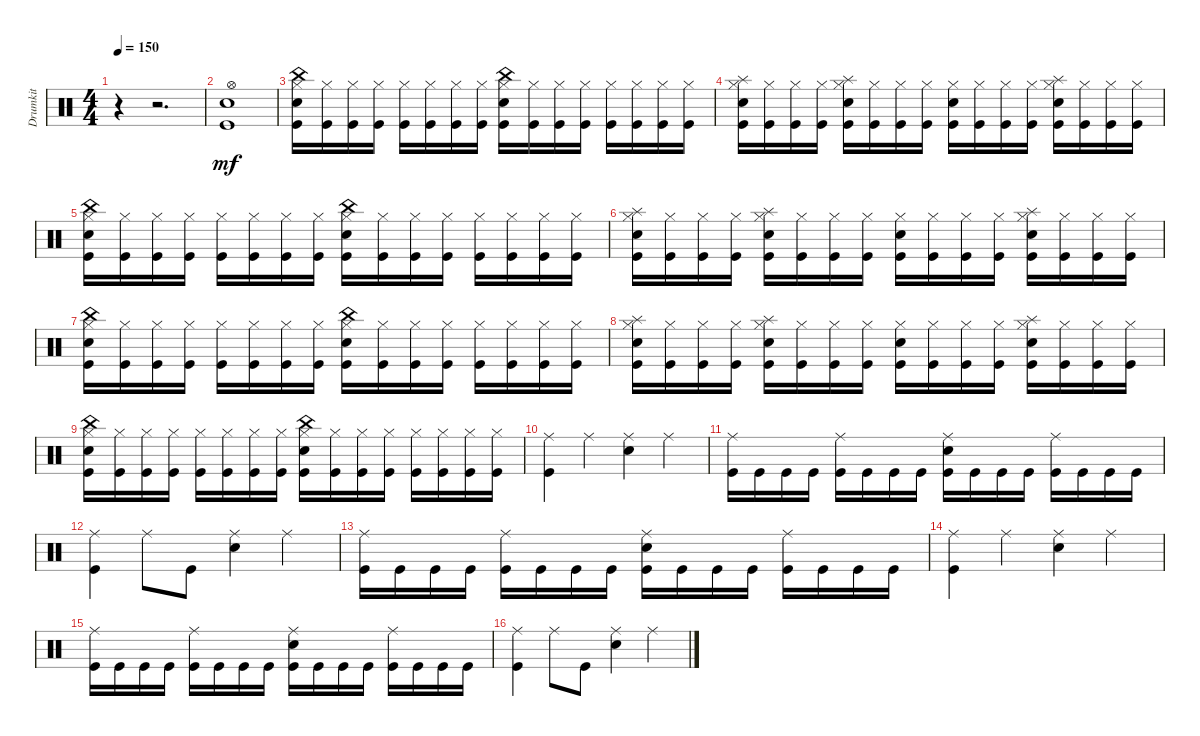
\track ("Drumkit" "Drumkit") {instrument percussion}
\staff {score}
\articulation defaults
\ts (4 4)
\tempo 150
\clef neutral
\ks c
r.4{dy mf} r.2{d} |
("Snare (hit) 2" "Hi-Hat (open)" "Kick (hit)").1 |
("Kick (hit)" "China (hit)" "Snare (hit) 2" "Hi-Hat (closed)").16 ("Kick (hit)" "Hi-Hat (closed)").16 ("Kick (hit)" "Hi-Hat (closed)").16 ("Kick (hit)" "Hi-Hat (closed)").16 ("Kick (hit)" "Hi-Hat (closed)").16 ("Kick (hit)" "Hi-Hat (closed)").16 ("Kick (hit)" "Hi-Hat (closed)").16 ("Kick (hit)" "Hi-Hat (closed)").16 ("Kick (hit)" "Snare (hit) 2" "China (hit)" "Hi-Hat (closed)").16 ("Kick (hit)" "Hi-Hat (closed)").16 ("Kick (hit)" "Hi-Hat (closed)").16 ("Kick (hit)" "Hi-Hat (closed)").16 ("Kick (hit)" "Hi-Hat (closed)").16 ("Kick (hit)" "Hi-Hat (closed)").16 ("Kick (hit)" "Hi-Hat (closed)").16 ("Kick (hit)" "Hi-Hat (closed)").16 |
("Kick (hit)" "Splash (hit)" "Snare (hit) 2" "Hi-Hat (closed)").16 ("Kick (hit)" "Hi-Hat (closed)").16 ("Kick (hit)" "Hi-Hat (closed)").16 ("Kick (hit)" "Hi-Hat (closed)").16 ("Kick (hit)" "Splash (hit)" "Snare (hit) 2" "Hi-Hat (closed)").16 ("Kick (hit)" "Hi-Hat (closed)").16 ("Kick (hit)" "Hi-Hat (closed)").16 ("Kick (hit)" "Hi-Hat (closed)").16 ("Kick (hit)" "Snare (hit) 2" "Hi-Hat (closed)").16 ("Kick (hit)" "Hi-Hat (closed)").16 ("Kick (hit)" "Hi-Hat (closed)").16 ("Kick (hit)" "Hi-Hat (closed)").16 ("Kick (hit)" "Snare (hit) 2" "Splash (hit)" "Hi-Hat (closed)").16 ("Kick (hit)" "Hi-Hat (closed)").16 ("Kick (hit)" "Hi-Hat (closed)").16 ("Kick (hit)" "Hi-Hat (closed)").16 |
("Kick (hit)" "China (hit)" "Snare (hit) 2" "Hi-Hat (closed)").16 ("Kick (hit)" "Hi-Hat (closed)").16 ("Kick (hit)" "Hi-Hat (closed)").16 ("Kick (hit)" "Hi-Hat (closed)").16 ("Kick (hit)" "Hi-Hat (closed)").16 ("Kick (hit)" "Hi-Hat (closed)").16 ("Kick (hit)" "Hi-Hat (closed)").16 ("Kick (hit)" "Hi-Hat (closed)").16 ("Kick (hit)" "Snare (hit) 2" "China (hit)" "Hi-Hat (closed)").16 ("Kick (hit)" "Hi-Hat (closed)").16 ("Kick (hit)" "Hi-Hat (closed)").16 ("Kick (hit)" "Hi-Hat (closed)").16 ("Kick (hit)" "Hi-Hat (closed)").16 ("Kick (hit)" "Hi-Hat (closed)").16 ("Kick (hit)" "Hi-Hat (closed)").16 ("Kick (hit)" "Hi-Hat (closed)").16 |
("Kick (hit)" "Splash (hit)" "Snare (hit) 2" "Hi-Hat (closed)").16 ("Kick (hit)" "Hi-Hat (closed)").16 ("Kick (hit)" "Hi-Hat (closed)").16 ("Kick (hit)" "Hi-Hat (closed)").16 ("Kick (hit)" "Splash (hit)" "Snare (hit) 2" "Hi-Hat (closed)").16 ("Kick (hit)" "Hi-Hat (closed)").16 ("Kick (hit)" "Hi-Hat (closed)").16 ("Kick (hit)" "Hi-Hat (closed)").16 ("Kick (hit)" "Snare (hit) 2" "Hi-Hat (closed)").16 ("Kick (hit)" "Hi-Hat (closed)").16 ("Kick (hit)" "Hi-Hat (closed)").16 ("Kick (hit)" "Hi-Hat (closed)").16 ("Kick (hit)" "Snare (hit) 2" "Splash (hit)" "Hi-Hat (closed)").16 ("Kick (hit)" "Hi-Hat (closed)").16 ("Kick (hit)" "Hi-Hat (closed)").16 ("Kick (hit)" "Hi-Hat (closed)").16 |
("Kick (hit)" "China (hit)" "Snare (hit) 2" "Hi-Hat (closed)").16 ("Kick (hit)" "Hi-Hat (closed)").16 ("Kick (hit)" "Hi-Hat (closed)").16 ("Kick (hit)" "Hi-Hat (closed)").16 ("Kick (hit)" "Hi-Hat (closed)").16 ("Kick (hit)" "Hi-Hat (closed)").16 ("Kick (hit)" "Hi-Hat (closed)").16 ("Kick (hit)" "Hi-Hat (closed)").16 ("Kick (hit)" "Snare (hit) 2" "China (hit)" "Hi-Hat (closed)").16 ("Kick (hit)" "Hi-Hat (closed)").16 ("Kick (hit)" "Hi-Hat (closed)").16 ("Kick (hit)" "Hi-Hat (closed)").16 ("Kick (hit)" "Hi-Hat (closed)").16 ("Kick (hit)" "Hi-Hat (closed)").16 ("Kick (hit)" "Hi-Hat (closed)").16 ("Kick (hit)" "Hi-Hat (closed)").16 |
("Kick (hit)" "Splash (hit)" "Snare (hit) 2" "Hi-Hat (closed)").16 ("Kick (hit)" "Hi-Hat (closed)").16 ("Kick (hit)" "Hi-Hat (closed)").16 ("Kick (hit)" "Hi-Hat (closed)").16 ("Kick (hit)" "Splash (hit)" "Snare (hit) 2" "Hi-Hat (closed)").16 ("Kick (hit)" "Hi-Hat (closed)").16 ("Kick (hit)" "Hi-Hat (closed)").16 ("Kick (hit)" "Hi-Hat (closed)").16 ("Kick (hit)" "Snare (hit) 2" "Hi-Hat (closed)").16 ("Kick (hit)" "Hi-Hat (closed)").16 ("Kick (hit)" "Hi-Hat (closed)").16 ("Kick (hit)" "Hi-Hat (closed)").16 ("Kick (hit)" "Snare (hit) 2" "Splash (hit)" "Hi-Hat (closed)").16 ("Kick (hit)" "Hi-Hat (closed)").16 ("Kick (hit)" "Hi-Hat (closed)").16 ("Kick (hit)" "Hi-Hat (closed)").16 |
("Kick (hit)" "China (hit)" "Snare (hit) 2" "Hi-Hat (closed)").16 ("Kick (hit)" "Hi-Hat (closed)").16 ("Kick (hit)" "Hi-Hat (closed)").16 ("Kick (hit)" "Hi-Hat (closed)").16 ("Kick (hit)" "Hi-Hat (closed)").16 ("Kick (hit)" "Hi-Hat (closed)").16 ("Kick (hit)" "Hi-Hat (closed)").16 ("Kick (hit)" "Hi-Hat (closed)").16 ("Kick (hit)" "Snare (hit) 2" "China (hit)" "Hi-Hat (closed)").16 ("Kick (hit)" "Hi-Hat (closed)").16 ("Kick (hit)" "Hi-Hat (closed)").16 ("Kick (hit)" "Hi-Hat (closed)").16 ("Kick (hit)" "Hi-Hat (closed)").16 ("Kick (hit)" "Hi-Hat (closed)").16 ("Kick (hit)" "Hi-Hat (closed)").16 ("Kick (hit)" "Hi-Hat (closed)").16 |
("Ride (middle)" "Kick (hit)").4 "Ride (middle)".4 ("Ride (middle)" "Snare (hit) 2").4 "Ride (middle)".4 |
("Kick (hit)" "Ride (middle)").16 "Kick (hit)".16 "Kick (hit)".16 "Kick (hit)".16 ("Kick (hit)" "Ride (middle)").16 "Kick (hit)".16 "Kick (hit)".16 "Kick (hit)".16 ("Kick (hit)" "Ride (middle)" "Snare (hit) 2").16 "Kick (hit)".16 "Kick (hit)".16 "Kick (hit)".16 ("Kick (hit)" "Ride (middle)").16 "Kick (hit)".16 "Kick (hit)".16 "Kick (hit)".16 |
("Ride (middle)" "Kick (hit)").4 "Ride (middle)".8 "Kick (hit)".8 ("Ride (middle)" "Snare (hit) 2").4 "Ride (middle)".4 |
("Kick (hit)" "Ride (middle)").16 "Kick (hit)".16 "Kick (hit)".16 "Kick (hit)".16 ("Kick (hit)" "Ride (middle)").16 "Kick (hit)".16 "Kick (hit)".16 "Kick (hit)".16 ("Kick (hit)" "Ride (middle)" "Snare (hit) 2").16 "Kick (hit)".16 "Kick (hit)".16 "Kick (hit)".16 ("Kick (hit)" "Ride (middle)").16 "Kick (hit)".16 "Kick (hit)".16 "Kick (hit)".16 |
("Ride (middle)" "Kick (hit)").4 "Ride (middle)".4 ("Ride (middle)" "Snare (hit) 2").4 "Ride (middle)".4 |
("Kick (hit)" "Ride (middle)").16 "Kick (hit)".16 "Kick (hit)".16 "Kick (hit)".16 ("Kick (hit)" "Ride (middle)").16 "Kick (hit)".16 "Kick (hit)".16 "Kick (hit)".16 ("Kick (hit)" "Ride (middle)" "Snare (hit) 2").16 "Kick (hit)".16 "Kick (hit)".16 "Kick (hit)".16 ("Kick (hit)" "Ride (middle)").16 "Kick (hit)".16 "Kick (hit)".16 "Kick (hit)".16 |
("Ride (middle)" "Kick (hit)").4 "Ride (middle)".8 "Kick (hit)".8 ("Ride (middle)" "Snare (hit) 2").4 "Ride (middle)".4
